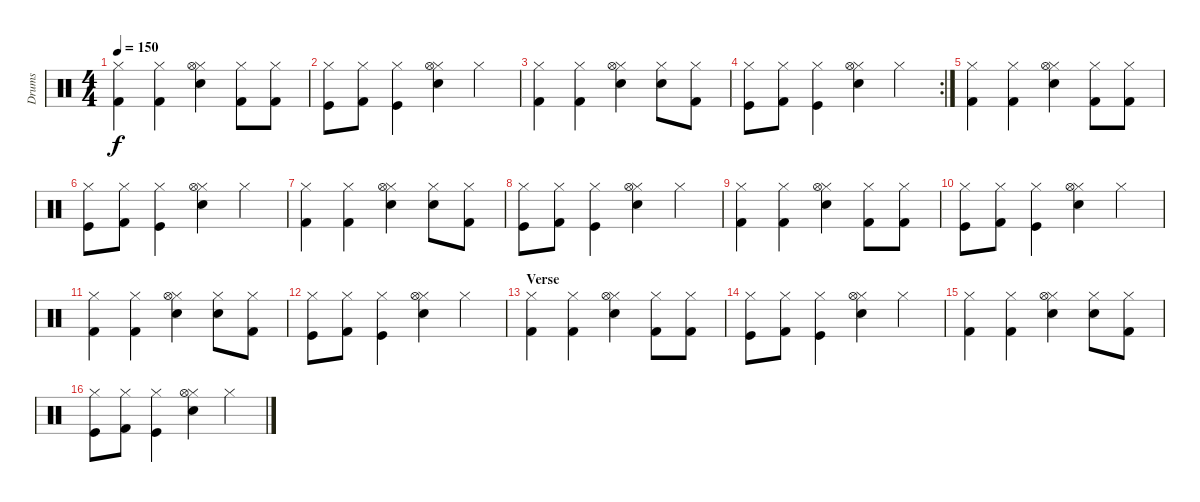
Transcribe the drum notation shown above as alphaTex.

\track ("Drums" "Drums") {instrument percussion}
\staff {score}
\articulation defaults
\ts (4 4)
\tempo 150
\clef neutral
\ks c
("Kick (hit) 2" "Hi-Hat (closed)").4{dy f} ("Kick (hit) 2" "Hi-Hat (closed)").4 ("Snare (hit) 2" "Hi-Hat (closed)" "Hi-Hat (open)").4 ("Kick (hit) 2" "Hi-Hat (closed)").8 ("Kick (hit) 2" "Hi-Hat (closed)").8 |
("Kick (hit)" "Hi-Hat (closed)").8 ("Kick (hit) 2" "Hi-Hat (closed)").8 ("Kick (hit)" "Hi-Hat (closed)").4 ("Snare (hit) 2" "Hi-Hat (closed)" "Hi-Hat (open)").4 "Hi-Hat (closed)".4 |
("Kick (hit) 2" "Hi-Hat (closed)").4 ("Kick (hit) 2" "Hi-Hat (closed)").4 ("Snare (hit) 2" "Hi-Hat (closed)" "Hi-Hat (open)").4 ("Snare (hit) 2" "Hi-Hat (closed)").8 ("Kick (hit) 2" "Hi-Hat (closed)").8 |
\rc 2
("Kick (hit)" "Hi-Hat (closed)").8 ("Kick (hit) 2" "Hi-Hat (closed)").8 ("Kick (hit)" "Hi-Hat (closed)").4 ("Snare (hit) 2" "Hi-Hat (closed)" "Hi-Hat (open)").4 "Hi-Hat (closed)".4 |
("Kick (hit) 2" "Hi-Hat (closed)").4 ("Kick (hit) 2" "Hi-Hat (closed)").4 ("Snare (hit) 2" "Hi-Hat (closed)" "Hi-Hat (open)").4 ("Kick (hit) 2" "Hi-Hat (closed)").8 ("Kick (hit) 2" "Hi-Hat (closed)").8 |
("Kick (hit)" "Hi-Hat (closed)").8 ("Kick (hit) 2" "Hi-Hat (closed)").8 ("Kick (hit)" "Hi-Hat (closed)").4 ("Snare (hit) 2" "Hi-Hat (closed)" "Hi-Hat (open)").4 "Hi-Hat (closed)".4 |
("Kick (hit) 2" "Hi-Hat (closed)").4 ("Kick (hit) 2" "Hi-Hat (closed)").4 ("Snare (hit) 2" "Hi-Hat (closed)" "Hi-Hat (open)").4 ("Snare (hit) 2" "Hi-Hat (closed)").8 ("Kick (hit) 2" "Hi-Hat (closed)").8 |
("Kick (hit)" "Hi-Hat (closed)").8 ("Kick (hit) 2" "Hi-Hat (closed)").8 ("Kick (hit)" "Hi-Hat (closed)").4 ("Snare (hit) 2" "Hi-Hat (closed)" "Hi-Hat (open)").4 "Hi-Hat (closed)".4 |
("Kick (hit) 2" "Hi-Hat (closed)").4 ("Kick (hit) 2" "Hi-Hat (closed)").4 ("Snare (hit) 2" "Hi-Hat (closed)" "Hi-Hat (open)").4 ("Kick (hit) 2" "Hi-Hat (closed)").8 ("Kick (hit) 2" "Hi-Hat (closed)").8 |
("Kick (hit)" "Hi-Hat (closed)").8 ("Kick (hit) 2" "Hi-Hat (closed)").8 ("Kick (hit)" "Hi-Hat (closed)").4 ("Snare (hit) 2" "Hi-Hat (closed)" "Hi-Hat (open)").4 "Hi-Hat (closed)".4 |
("Kick (hit) 2" "Hi-Hat (closed)").4 ("Kick (hit) 2" "Hi-Hat (closed)").4 ("Snare (hit) 2" "Hi-Hat (closed)" "Hi-Hat (open)").4 ("Snare (hit) 2" "Hi-Hat (closed)").8 ("Kick (hit) 2" "Hi-Hat (closed)").8 |
("Kick (hit)" "Hi-Hat (closed)").8 ("Kick (hit) 2" "Hi-Hat (closed)").8 ("Kick (hit)" "Hi-Hat (closed)").4 ("Snare (hit) 2" "Hi-Hat (closed)" "Hi-Hat (open)").4 "Hi-Hat (closed)".4 |
\section ("" "Verse")
("Kick (hit) 2" "Hi-Hat (closed)").4 ("Kick (hit) 2" "Hi-Hat (closed)").4 ("Snare (hit) 2" "Hi-Hat (closed)" "Hi-Hat (open)").4 ("Kick (hit) 2" "Hi-Hat (closed)").8 ("Kick (hit) 2" "Hi-Hat (closed)").8 |
("Kick (hit)" "Hi-Hat (closed)").8 ("Kick (hit) 2" "Hi-Hat (closed)").8 ("Kick (hit)" "Hi-Hat (closed)").4 ("Snare (hit) 2" "Hi-Hat (closed)" "Hi-Hat (open)").4 "Hi-Hat (closed)".4 |
("Kick (hit) 2" "Hi-Hat (closed)").4 ("Kick (hit) 2" "Hi-Hat (closed)").4 ("Snare (hit) 2" "Hi-Hat (closed)" "Hi-Hat (open)").4 ("Snare (hit) 2" "Hi-Hat (closed)").8 ("Kick (hit) 2" "Hi-Hat (closed)").8 |
("Kick (hit)" "Hi-Hat (closed)").8 ("Kick (hit) 2" "Hi-Hat (closed)").8 ("Kick (hit)" "Hi-Hat (closed)").4 ("Snare (hit) 2" "Hi-Hat (closed)" "Hi-Hat (open)").4 "Hi-Hat (closed)".4
